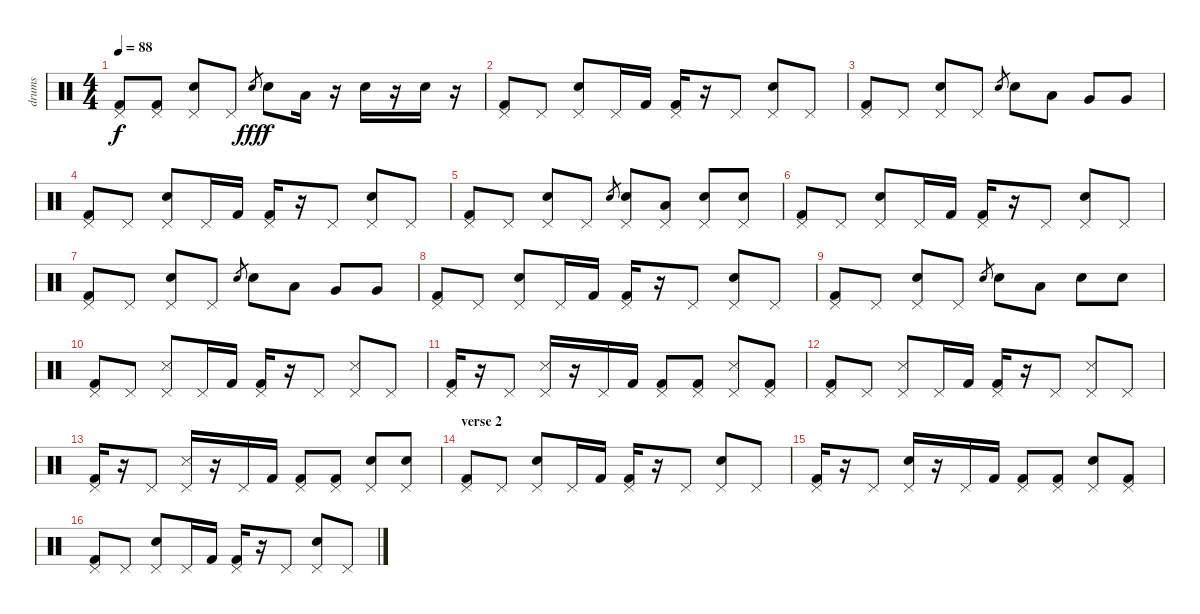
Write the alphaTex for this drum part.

\track ("drums" "drums") {instrument percussion}
\staff {score}
\articulation defaults
\ts (4 4)
\tempo 88
\clef neutral
\ks c
("Kick (hit) 2" "Pedal Hi-Hat (hit)").8{dy f} ("Kick (hit) 2" "Pedal Hi-Hat (hit)").8 ("Electric Snare (hit)" "Pedal Hi-Hat (hit)").8 "Pedal Hi-Hat (hit)".8 "Electric Snare (hit)".8{gr dy fff} "Electric Snare (hit)".8{dy f} "Low Tom (hit)".16 r.16 "Electric Snare (hit)".16 r.16 "Electric Snare (hit)".16 r.16 |
("Kick (hit) 2" "Pedal Hi-Hat (hit)").8 "Pedal Hi-Hat (hit)".8 ("Electric Snare (hit)" "Pedal Hi-Hat (hit)").8 "Pedal Hi-Hat (hit)".16 "Kick (hit) 2".16 ("Kick (hit) 2" "Pedal Hi-Hat (hit)").16 r.16 "Pedal Hi-Hat (hit)".8 ("Electric Snare (hit)" "Pedal Hi-Hat (hit)").8 "Pedal Hi-Hat (hit)".8 |
("Kick (hit) 2" "Pedal Hi-Hat (hit)").8 "Pedal Hi-Hat (hit)".8 ("Electric Snare (hit)" "Pedal Hi-Hat (hit)").8 "Pedal Hi-Hat (hit)".8 "Electric Snare (hit)".8{gr} "Electric Snare (hit)".8 "Low Tom (hit)".8 "Very Low Tom (hit)".8 "Very Low Tom (hit)".8 |
("Kick (hit) 2" "Pedal Hi-Hat (hit)").8 "Pedal Hi-Hat (hit)".8 ("Electric Snare (hit)" "Pedal Hi-Hat (hit)").8 "Pedal Hi-Hat (hit)".16 "Kick (hit) 2".16 ("Kick (hit) 2" "Pedal Hi-Hat (hit)").16 r.16 "Pedal Hi-Hat (hit)".8 ("Electric Snare (hit)" "Pedal Hi-Hat (hit)").8 "Pedal Hi-Hat (hit)".8 |
("Kick (hit) 2" "Pedal Hi-Hat (hit)").8 "Pedal Hi-Hat (hit)".8 ("Electric Snare (hit)" "Pedal Hi-Hat (hit)").8 "Pedal Hi-Hat (hit)".8 "Electric Snare (hit)".8{gr} ("Electric Snare (hit)" "Pedal Hi-Hat (hit)").8 ("Low Tom (hit)" "Pedal Hi-Hat (hit)").8 ("Electric Snare (hit)" "Pedal Hi-Hat (hit)").8 ("Electric Snare (hit)" "Pedal Hi-Hat (hit)").8 |
("Kick (hit) 2" "Pedal Hi-Hat (hit)").8 "Pedal Hi-Hat (hit)".8 ("Electric Snare (hit)" "Pedal Hi-Hat (hit)").8 "Pedal Hi-Hat (hit)".16 "Kick (hit) 2".16 ("Kick (hit) 2" "Pedal Hi-Hat (hit)").16 r.16 "Pedal Hi-Hat (hit)".8 ("Electric Snare (hit)" "Pedal Hi-Hat (hit)").8 "Pedal Hi-Hat (hit)".8 |
("Kick (hit) 2" "Pedal Hi-Hat (hit)").8 "Pedal Hi-Hat (hit)".8 ("Electric Snare (hit)" "Pedal Hi-Hat (hit)").8 "Pedal Hi-Hat (hit)".8 "Electric Snare (hit)".8{gr} "Electric Snare (hit)".8 "Low Tom (hit)".8 "Very Low Tom (hit)".8 "Very Low Tom (hit)".8 |
("Kick (hit) 2" "Pedal Hi-Hat (hit)").8 "Pedal Hi-Hat (hit)".8 ("Electric Snare (hit)" "Pedal Hi-Hat (hit)").8 "Pedal Hi-Hat (hit)".16 "Kick (hit) 2".16 ("Kick (hit) 2" "Pedal Hi-Hat (hit)").16 r.16 "Pedal Hi-Hat (hit)".8 ("Electric Snare (hit)" "Pedal Hi-Hat (hit)").8 "Pedal Hi-Hat (hit)".8 |
("Kick (hit) 2" "Pedal Hi-Hat (hit)").8 "Pedal Hi-Hat (hit)".8 ("Electric Snare (hit)" "Pedal Hi-Hat (hit)").8 "Pedal Hi-Hat (hit)".8 "Electric Snare (hit)".8{gr} "Electric Snare (hit)".8 "Low Tom (hit)".8 "Electric Snare (hit)".8 "Electric Snare (hit)".8 |
("Kick (hit) 2" "Pedal Hi-Hat (hit)").8{volume 12} "Pedal Hi-Hat (hit)".8 ("Snare (side stick) 3" "Pedal Hi-Hat (hit)").8 "Pedal Hi-Hat (hit)".16 "Kick (hit) 2".16 ("Kick (hit) 2" "Pedal Hi-Hat (hit)").16 r.16 "Pedal Hi-Hat (hit)".8 ("Snare (side stick) 3" "Pedal Hi-Hat (hit)").8 "Pedal Hi-Hat (hit)".8 |
("Kick (hit) 2" "Pedal Hi-Hat (hit)").16 r.16 "Pedal Hi-Hat (hit)".8 ("Snare (side stick) 3" "Pedal Hi-Hat (hit)").16 r.16 "Pedal Hi-Hat (hit)".16 "Kick (hit) 2".16 ("Kick (hit) 2" "Pedal Hi-Hat (hit)").8 ("Kick (hit) 2" "Pedal Hi-Hat (hit)").8 ("Snare (side stick) 3" "Pedal Hi-Hat (hit)").8 ("Kick (hit) 2" "Pedal Hi-Hat (hit)").8 |
("Kick (hit) 2" "Pedal Hi-Hat (hit)").8 "Pedal Hi-Hat (hit)".8 ("Snare (side stick) 3" "Pedal Hi-Hat (hit)").8 "Pedal Hi-Hat (hit)".16 "Kick (hit) 2".16 ("Kick (hit) 2" "Pedal Hi-Hat (hit)").16 r.16 "Pedal Hi-Hat (hit)".8 ("Snare (side stick) 3" "Pedal Hi-Hat (hit)").8 "Pedal Hi-Hat (hit)".8 |
("Kick (hit) 2" "Pedal Hi-Hat (hit)").16 r.16 "Pedal Hi-Hat (hit)".8 ("Snare (side stick) 3" "Pedal Hi-Hat (hit)").16 r.16 "Pedal Hi-Hat (hit)".16 "Kick (hit) 2".16 ("Kick (hit) 2" "Pedal Hi-Hat (hit)").8 ("Kick (hit) 2" "Pedal Hi-Hat (hit)").8 ("Electric Snare (hit)" "Pedal Hi-Hat (hit)").8{volume 16} ("Electric Snare (hit)" "Pedal Hi-Hat (hit)").8 |
\section ("" "verse 2")
("Kick (hit) 2" "Pedal Hi-Hat (hit)").8 "Pedal Hi-Hat (hit)".8 ("Electric Snare (hit)" "Pedal Hi-Hat (hit)").8 "Pedal Hi-Hat (hit)".16 "Kick (hit) 2".16 ("Kick (hit) 2" "Pedal Hi-Hat (hit)").16 r.16 "Pedal Hi-Hat (hit)".8 ("Electric Snare (hit)" "Pedal Hi-Hat (hit)").8 "Pedal Hi-Hat (hit)".8 |
("Kick (hit) 2" "Pedal Hi-Hat (hit)").16 r.16 "Pedal Hi-Hat (hit)".8 ("Electric Snare (hit)" "Pedal Hi-Hat (hit)").16 r.16 "Pedal Hi-Hat (hit)".16 "Kick (hit) 2".16 ("Kick (hit) 2" "Pedal Hi-Hat (hit)").8 ("Kick (hit) 2" "Pedal Hi-Hat (hit)").8 ("Electric Snare (hit)" "Pedal Hi-Hat (hit)").8 ("Kick (hit) 2" "Pedal Hi-Hat (hit)").8 |
("Kick (hit) 2" "Pedal Hi-Hat (hit)").8 "Pedal Hi-Hat (hit)".8 ("Electric Snare (hit)" "Pedal Hi-Hat (hit)").8 "Pedal Hi-Hat (hit)".16 "Kick (hit) 2".16 ("Kick (hit) 2" "Pedal Hi-Hat (hit)").16 r.16 "Pedal Hi-Hat (hit)".8 ("Electric Snare (hit)" "Pedal Hi-Hat (hit)").8 "Pedal Hi-Hat (hit)".8
